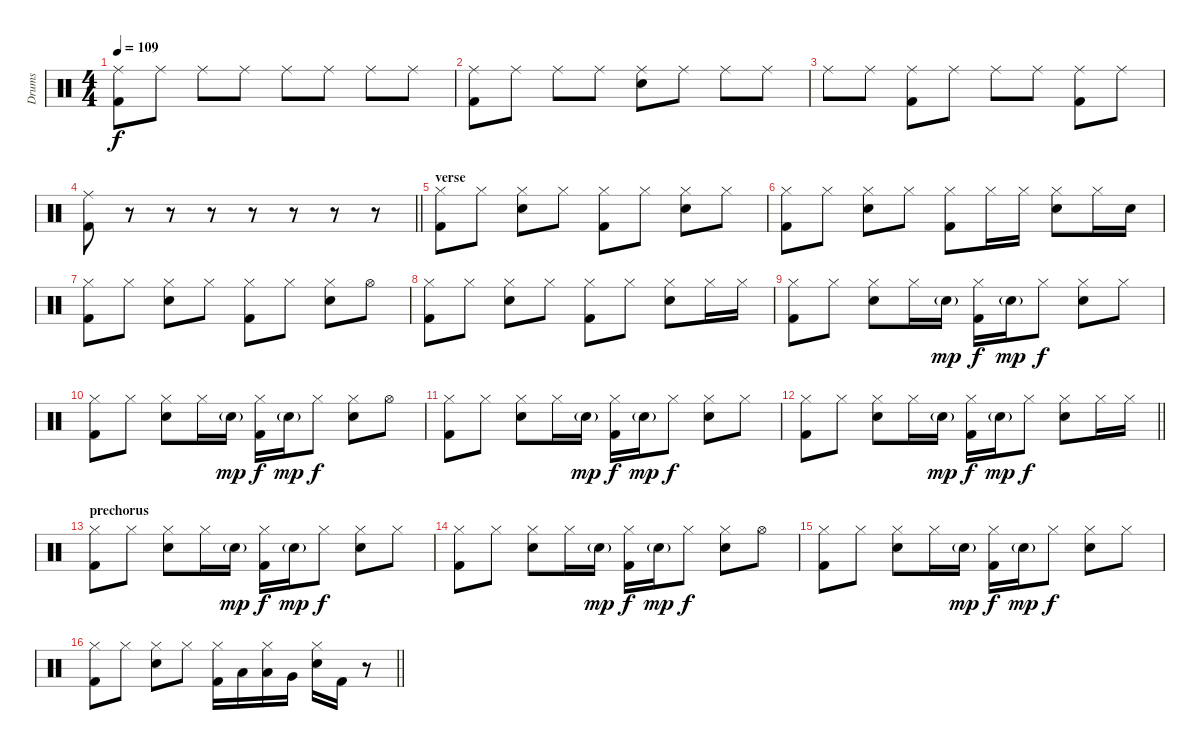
\track ("Drums" "Drums") {instrument percussion}
\staff {score}
\articulation defaults
\ts (4 4)
\tempo 109
\clef neutral
\ks c
("Ride (middle)" "Kick (hit) 2").8{dy f} "Ride (middle)".8 "Ride (middle)".8 "Ride (middle)".8 "Ride (middle)".8 "Ride (middle)".8 "Ride (middle)".8 "Ride (middle)".8 |
("Ride (middle)" "Kick (hit) 2").8 "Ride (middle)".8 "Ride (middle)".8 "Ride (middle)".8 ("Ride (middle)" "Electric Snare (hit)").8 "Ride (middle)".8 "Ride (middle)".8 "Ride (middle)".8 |
"Ride (middle)".8 "Ride (middle)".8 ("Ride (middle)" "Kick (hit) 2").8 "Ride (middle)".8 "Ride (middle)".8 "Ride (middle)".8 ("Ride (middle)" "Kick (hit) 2").8 "Ride (middle)".8 |
\barLineRight lightlight
("Ride (middle)" "Kick (hit) 2").8 r.8 r.8 r.8 r.8 r.8 r.8 r.8 |
\section ("" "verse")
("Hi-Hat (closed)" "Kick (hit) 2").8 "Hi-Hat (closed)".8 ("Hi-Hat (closed)" "Electric Snare (hit)").8 "Hi-Hat (closed)".8 ("Hi-Hat (closed)" "Kick (hit) 2").8 "Hi-Hat (closed)".8 ("Hi-Hat (closed)" "Electric Snare (hit)").8 "Hi-Hat (closed)".8 |
("Hi-Hat (closed)" "Kick (hit) 2").8 "Hi-Hat (closed)".8 ("Hi-Hat (closed)" "Electric Snare (hit)").8 "Hi-Hat (closed)".8 ("Hi-Hat (closed)" "Kick (hit) 2").8 "Hi-Hat (closed)".16 "Hi-Hat (closed)".16 ("Hi-Hat (closed)" "Electric Snare (hit)").8 "Hi-Hat (closed)".16 "Electric Snare (hit)".16 |
("Hi-Hat (closed)" "Kick (hit) 2").8 "Hi-Hat (closed)".8 ("Hi-Hat (closed)" "Electric Snare (hit)").8 "Hi-Hat (closed)".8 ("Hi-Hat (closed)" "Kick (hit) 2").8 "Hi-Hat (closed)".8 ("Hi-Hat (closed)" "Electric Snare (hit)").8 "Hi-Hat (open)".8 |
("Hi-Hat (closed)" "Kick (hit) 2").8 "Hi-Hat (closed)".8 ("Hi-Hat (closed)" "Electric Snare (hit)").8 "Hi-Hat (closed)".8 ("Hi-Hat (closed)" "Kick (hit) 2").8 "Hi-Hat (closed)".8 ("Hi-Hat (closed)" "Electric Snare (hit)").8 "Hi-Hat (closed)".16 "Hi-Hat (closed)".16 |
("Hi-Hat (closed)" "Kick (hit) 2").8 "Hi-Hat (closed)".8 ("Hi-Hat (closed)" "Electric Snare (hit)").8 "Hi-Hat (closed)".16 "Electric Snare (hit)"{g}.16{dy mp} ("Hi-Hat (closed)" "Kick (hit) 2").16{dy f} "Electric Snare (hit)"{g}.16{dy mp} "Hi-Hat (closed)".8{dy f} ("Hi-Hat (closed)" "Electric Snare (hit)").8 "Hi-Hat (closed)".8 |
("Hi-Hat (closed)" "Kick (hit) 2").8 "Hi-Hat (closed)".8 ("Hi-Hat (closed)" "Electric Snare (hit)").8 "Hi-Hat (closed)".16 "Electric Snare (hit)"{g}.16{dy mp} ("Hi-Hat (closed)" "Kick (hit) 2").16{dy f} "Electric Snare (hit)"{g}.16{dy mp} "Hi-Hat (closed)".8{dy f} ("Hi-Hat (closed)" "Electric Snare (hit)").8 "Hi-Hat (open)".8 |
("Hi-Hat (closed)" "Kick (hit) 2").8 "Hi-Hat (closed)".8 ("Hi-Hat (closed)" "Electric Snare (hit)").8 "Hi-Hat (closed)".16 "Electric Snare (hit)"{g}.16{dy mp} ("Hi-Hat (closed)" "Kick (hit) 2").16{dy f} "Electric Snare (hit)"{g}.16{dy mp} "Hi-Hat (closed)".8{dy f} ("Hi-Hat (closed)" "Electric Snare (hit)").8 "Hi-Hat (closed)".8 |
\barLineRight lightlight
("Hi-Hat (closed)" "Kick (hit) 2").8 "Hi-Hat (closed)".8 ("Hi-Hat (closed)" "Electric Snare (hit)").8 "Hi-Hat (closed)".16 "Electric Snare (hit)"{g}.16{dy mp} ("Hi-Hat (closed)" "Kick (hit) 2").16{dy f} "Electric Snare (hit)"{g}.16{dy mp} "Hi-Hat (closed)".8{dy f} ("Hi-Hat (closed)" "Electric Snare (hit)").8 "Hi-Hat (closed)".16 "Hi-Hat (closed)".16 |
\section ("" "prechorus")
("Hi-Hat (closed)" "Kick (hit) 2").8 "Hi-Hat (closed)".8 ("Hi-Hat (closed)" "Electric Snare (hit)").8 "Hi-Hat (closed)".16 "Electric Snare (hit)"{g}.16{dy mp} ("Hi-Hat (closed)" "Kick (hit) 2").16{dy f} "Electric Snare (hit)"{g}.16{dy mp} "Hi-Hat (closed)".8{dy f} ("Hi-Hat (closed)" "Electric Snare (hit)").8 "Hi-Hat (closed)".8 |
("Hi-Hat (closed)" "Kick (hit) 2").8 "Hi-Hat (closed)".8 ("Hi-Hat (closed)" "Electric Snare (hit)").8 "Hi-Hat (closed)".16 "Electric Snare (hit)"{g}.16{dy mp} ("Hi-Hat (closed)" "Kick (hit) 2").16{dy f} "Electric Snare (hit)"{g}.16{dy mp} "Hi-Hat (closed)".8{dy f} ("Hi-Hat (closed)" "Electric Snare (hit)").8 "Hi-Hat (open)".8 |
("Hi-Hat (closed)" "Kick (hit) 2").8 "Hi-Hat (closed)".8 ("Hi-Hat (closed)" "Electric Snare (hit)").8 "Hi-Hat (closed)".16 "Electric Snare (hit)"{g}.16{dy mp} ("Hi-Hat (closed)" "Kick (hit) 2").16{dy f} "Electric Snare (hit)"{g}.16{dy mp} "Hi-Hat (closed)".8{dy f} ("Hi-Hat (closed)" "Electric Snare (hit)").8 "Hi-Hat (closed)".8 |
\barLineRight lightlight
("Hi-Hat (closed)" "Kick (hit) 2").8 "Hi-Hat (closed)".8 ("Hi-Hat (closed)" "Electric Snare (hit)").8 "Hi-Hat (closed)".8 ("Hi-Hat (closed)" "Kick (hit) 2").16 "Low Tom (hit)".16 ("Hi-Hat (closed)" "Low Floor Tom (hit)").16 "Very Low Tom (hit)".16 ("Hi-Hat (closed)" "Electric Snare (hit)").16 "Kick (hit) 2".16 r.8
